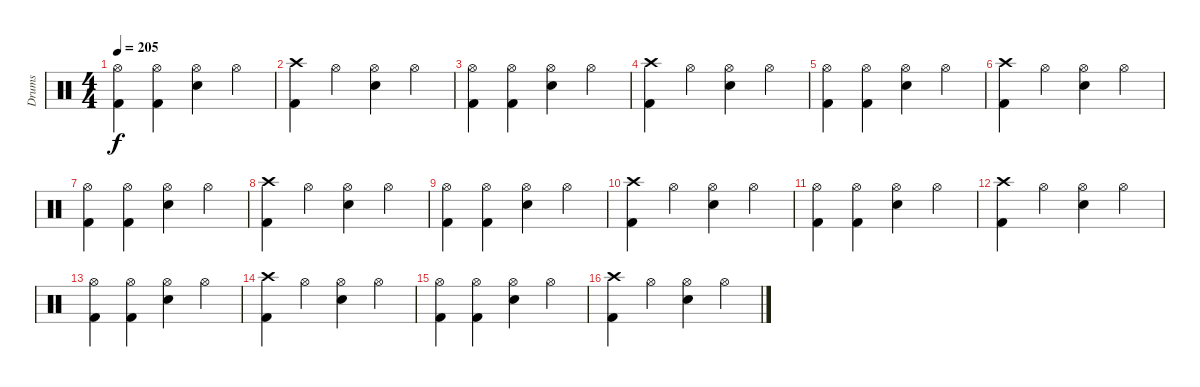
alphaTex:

\track ("Drums" "Drums") {instrument percussion}
\staff {score}
\articulation defaults
\ts (4 4)
\tempo 205
\clef neutral
\ks c
("Hi-Hat (open)" "Kick (hit) 2").4{dy f} ("Hi-Hat (open)" "Kick (hit) 2").4 ("Hi-Hat (open)" "Snare (hit) 2").4 "Hi-Hat (open)".4 |
("Crash high (hit)" "Kick (hit) 2").4 "Hi-Hat (open)".4 ("Hi-Hat (open)" "Snare (hit) 2").4 "Hi-Hat (open)".4 |
("Hi-Hat (open)" "Kick (hit) 2").4 ("Hi-Hat (open)" "Kick (hit) 2").4 ("Hi-Hat (open)" "Snare (hit) 2").4 "Hi-Hat (open)".4 |
("Crash high (hit)" "Kick (hit) 2").4 "Hi-Hat (open)".4 ("Hi-Hat (open)" "Snare (hit) 2").4 "Hi-Hat (open)".4 |
("Hi-Hat (open)" "Kick (hit) 2").4 ("Hi-Hat (open)" "Kick (hit) 2").4 ("Hi-Hat (open)" "Snare (hit) 2").4 "Hi-Hat (open)".4 |
("Crash high (hit)" "Kick (hit) 2").4 "Hi-Hat (open)".4 ("Hi-Hat (open)" "Snare (hit) 2").4 "Hi-Hat (open)".4 |
("Hi-Hat (open)" "Kick (hit) 2").4 ("Hi-Hat (open)" "Kick (hit) 2").4 ("Hi-Hat (open)" "Snare (hit) 2").4 "Hi-Hat (open)".4 |
("Crash high (hit)" "Kick (hit) 2").4 "Hi-Hat (open)".4 ("Hi-Hat (open)" "Snare (hit) 2").4 "Hi-Hat (open)".4 |
("Hi-Hat (open)" "Kick (hit) 2").4 ("Hi-Hat (open)" "Kick (hit) 2").4 ("Hi-Hat (open)" "Snare (hit) 2").4 "Hi-Hat (open)".4 |
("Crash high (hit)" "Kick (hit) 2").4 "Hi-Hat (open)".4 ("Hi-Hat (open)" "Snare (hit) 2").4 "Hi-Hat (open)".4 |
("Hi-Hat (open)" "Kick (hit) 2").4 ("Hi-Hat (open)" "Kick (hit) 2").4 ("Hi-Hat (open)" "Snare (hit) 2").4 "Hi-Hat (open)".4 |
("Crash high (hit)" "Kick (hit) 2").4 "Hi-Hat (open)".4 ("Hi-Hat (open)" "Snare (hit) 2").4 "Hi-Hat (open)".4 |
("Hi-Hat (open)" "Kick (hit) 2").4 ("Hi-Hat (open)" "Kick (hit) 2").4 ("Hi-Hat (open)" "Snare (hit) 2").4 "Hi-Hat (open)".4 |
("Crash high (hit)" "Kick (hit) 2").4 "Hi-Hat (open)".4 ("Hi-Hat (open)" "Snare (hit) 2").4 "Hi-Hat (open)".4 |
("Hi-Hat (open)" "Kick (hit) 2").4 ("Hi-Hat (open)" "Kick (hit) 2").4 ("Hi-Hat (open)" "Snare (hit) 2").4 "Hi-Hat (open)".4 |
("Crash high (hit)" "Kick (hit) 2").4 "Hi-Hat (open)".4 ("Hi-Hat (open)" "Snare (hit) 2").4 "Hi-Hat (open)".4
